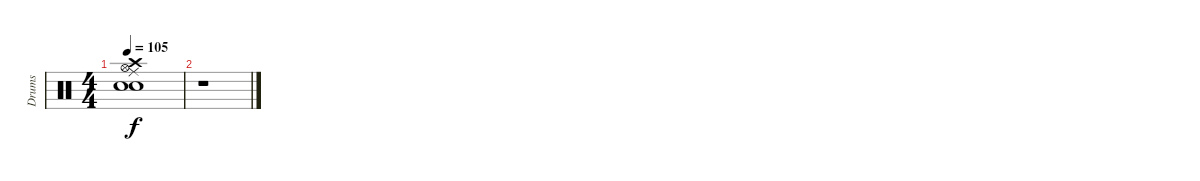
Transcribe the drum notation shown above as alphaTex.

\track ("Drums" "Drums") {instrument percussion}
\staff {score}
\articulation defaults
\ts (4 4)
\tempo 105
\clef neutral
\ks c
("Ride (middle)" "Hi-Hat (open)" "Crash high (hit)" "Snare (hit) 2" "Electric Snare (hit)").1{dy f} |
r.1
